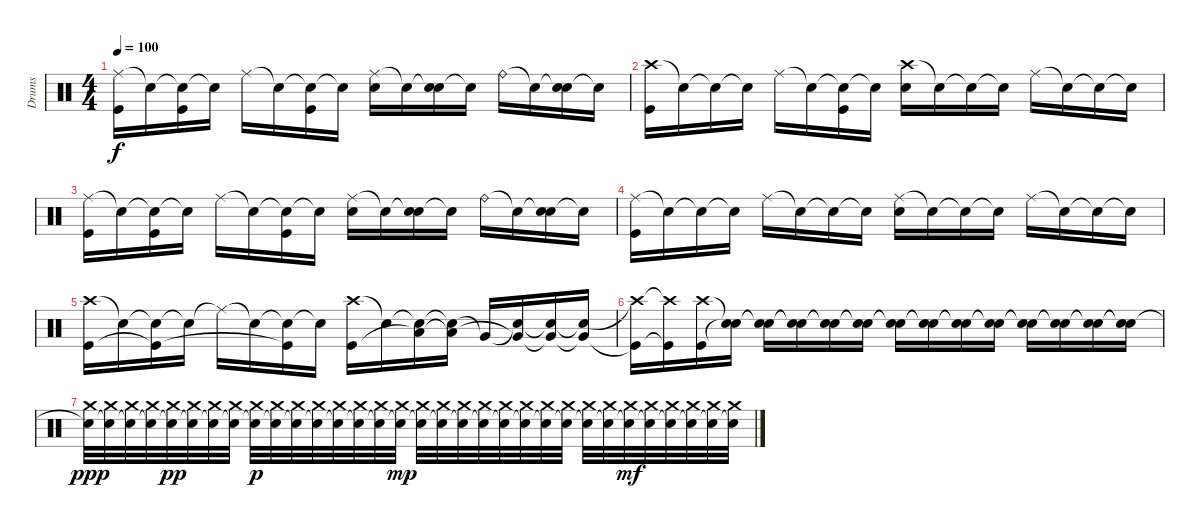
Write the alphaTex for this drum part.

\track ("Drums" "Drums") {instrument percussion}
\staff {score}
\articulation defaults
\ts (4 4)
\tempo 100
\clef neutral
\ks c
("Ride (middle)" "Kick (hit)").16{dy f} "Snare (hit)"{t}.16 ("Snare (hit)"{t} "Kick (hit)").16 "Snare (hit)"{t}.16 "Ride (middle)".16 "Snare (hit)"{t}.16 ("Snare (hit)"{t} "Kick (hit)").16 "Snare (hit)"{t}.16 ("Ride (middle)" "Electric Snare (hit)").16 "Snare (hit)"{t}.16 ("Snare (hit)"{t} "Electric Snare (hit)").16 "Snare (hit)"{t}.16 "Ride (bell)".16 "Snare (hit)"{t}.16 ("Snare (hit)"{t} "Electric Snare (hit)").16 "Snare (hit)"{t}.16 |
("Crash high (hit)" "Kick (hit)").16 "Snare (hit)"{t}.16 "Snare (hit)"{t}.16 "Snare (hit)"{t}.16 "Ride (middle)".16 "Snare (hit)"{t}.16 ("Snare (hit)"{t} "Kick (hit)").16 "Snare (hit)"{t}.16 ("Crash high (hit)" "Electric Snare (hit)").16 "Snare (hit)"{t}.16 "Snare (hit)"{t}.16 "Snare (hit)"{t}.16 "Ride (middle)".16 "Snare (hit)"{t}.16 "Snare (hit)"{t}.16 "Snare (hit)"{t}.16 |
("Ride (middle)" "Kick (hit)").16 "Snare (hit)"{t}.16 ("Snare (hit)"{t} "Kick (hit)").16 "Snare (hit)"{t}.16 "Ride (middle)".16 "Snare (hit)"{t}.16 ("Snare (hit)"{t} "Kick (hit)").16 "Snare (hit)"{t}.16 ("Ride (middle)" "Electric Snare (hit)").16 "Snare (hit)"{t}.16 ("Snare (hit)"{t} "Electric Snare (hit)").16 "Snare (hit)"{t}.16 "Ride (bell)".16 "Snare (hit)"{t}.16 ("Snare (hit)"{t} "Electric Snare (hit)").16 "Snare (hit)"{t}.16 |
("Ride (middle)" "Kick (hit)").16 "Snare (hit)"{t}.16 "Snare (hit)"{t}.16 "Snare (hit)"{t}.16 "Ride (middle)".16 "Snare (hit)"{t}.16 "Snare (hit)"{t}.16 "Snare (hit)"{t}.16 ("Ride (middle)" "Electric Snare (hit)").16 "Snare (hit)"{t}.16 "Snare (hit)"{t}.16 "Snare (hit)"{t}.16 "Ride (middle)".16 "Snare (hit)"{t}.16 "Snare (hit)"{t}.16 "Snare (hit)"{t}.16 |
("Crash high (hit)" "Kick (hit)").16 "Snare (hit)"{t}.16 ("Snare (hit)"{t} "Kick (hit)"{t}).16 "Snare (hit)"{t}.16 "Ride (middle)"{t}.16 "Snare (hit)"{t}.16 ("Snare (hit)"{t} "Kick (hit)"{t}).16 "Snare (hit)"{t}.16 ("Crash high (hit)" "Kick (hit)").16 "Snare (hit)"{t}.16 ("Snare (hit)"{t} "Low Tom (hit)"{t}).16 ("Snare (hit)"{t} "Low Tom (hit)"{t}).16 "Very Low Tom (hit)"{t}.16 ("Snare (hit)"{t} "Very Low Tom (hit)"{t}).16 ("Snare (hit)"{t} "Very Low Tom (hit)"{t}).16 ("Snare (hit)"{t} "Very Low Tom (hit)"{t}).16 |
("Crash high (hit)"{t} "Kick (hit)"{t}).16 ("Crash high (hit)"{t} "Kick (hit)"{t}).16 ("Crash high (hit)" "Kick (hit)").16 ("Snare (hit)"{t} "Snare (hit)"{t}).16 ("Snare (hit)"{t} "Snare (hit)"{t}).16 ("Snare (hit)"{t} "Snare (hit)"{t}).16 ("Snare (hit)"{t} "Snare (hit)"{t}).16 ("Snare (hit)"{t} "Snare (hit)"{t}).16 ("Snare (hit)"{t} "Snare (hit)"{t}).16 ("Snare (hit)"{t} "Snare (hit)"{t}).16 ("Snare (hit)"{t} "Snare (hit)"{t}).16 ("Snare (hit)"{t} "Snare (hit)"{t}).16 ("Snare (hit)"{t} "Snare (hit)"{t}).16 ("Snare (hit)"{t} "Snare (hit)"{t}).16 ("Snare (hit)"{t} "Snare (hit)"{t}).16 ("Snare (hit)"{t} "Snare (hit)"{t}).16 |
("Snare (hit)"{t} "Crash medium (hit)").32{dy ppp} ("Snare (hit)"{t} "Crash medium (hit)").32 ("Snare (hit)"{t} "Crash medium (hit)").32 ("Snare (hit)"{t} "Crash medium (hit)").32 ("Snare (hit)"{t} "Crash medium (hit)").32{dy pp} ("Snare (hit)"{t} "Crash medium (hit)").32 ("Snare (hit)"{t} "Crash medium (hit)").32 ("Snare (hit)"{t} "Crash medium (hit)").32 ("Snare (hit)"{t} "Crash medium (hit)").32{dy p} ("Snare (hit)"{t} "Crash medium (hit)").32 ("Snare (hit)"{t} "Crash medium (hit)").32 ("Snare (hit)"{t} "Crash medium (hit)").32 ("Snare (hit)"{t} "Crash medium (hit)").32 ("Snare (hit)"{t} "Crash medium (hit)").32 ("Snare (hit)"{t} "Crash medium (hit)").32 ("Snare (hit)"{t} "Crash medium (hit)").32{dy mp} ("Snare (hit)"{t} "Crash medium (hit)").32 ("Snare (hit)"{t} "Crash medium (hit)").32 ("Snare (hit)"{t} "Crash medium (hit)").32 ("Snare (hit)"{t} "Crash medium (hit)").32 ("Snare (hit)"{t} "Crash medium (hit)").32 ("Snare (hit)"{t} "Crash medium (hit)").32 ("Snare (hit)"{t} "Crash medium (hit)").32 ("Snare (hit)"{t} "Crash medium (hit)").32 ("Snare (hit)"{t} "Crash medium (hit)").32 ("Snare (hit)"{t} "Crash medium (hit)").32 ("Snare (hit)"{t} "Crash medium (hit)").32{dy mf} ("Snare (hit)"{t} "Crash medium (hit)").32 ("Snare (hit)"{t} "Crash medium (hit)").32 ("Snare (hit)"{t} "Crash medium (hit)").32 ("Snare (hit)"{t} "Crash medium (hit)").32 ("Snare (hit)"{t} "Crash medium (hit)").32
